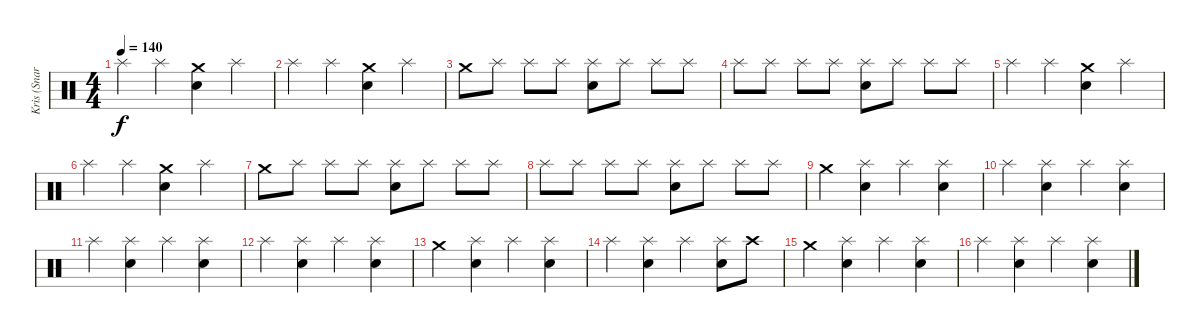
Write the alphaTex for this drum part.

\track ("Kris (Snares & Toms)" "Kris (Snar") {instrument percussion}
\staff {score}
\articulation defaults
\ts (4 4)
\tempo 140
\clef neutral
\ks c "Splash (hit)".4{dy f} "Splash (hit)".4
("Crash medium (hit)" "Electric Snare (hit)").4 "Splash (hit)".4 |
"Splash (hit)".4 "Splash (hit)".4 ("Crash medium (hit)" "Electric Snare (hit)").4 "Splash (hit)".4 |
"Crash medium (hit)".8 "Splash (hit)".8 "Splash (hit)".8 "Splash (hit)".8 ("Splash (hit)" "Electric Snare (hit)").8 "Splash (hit)".8 "Splash (hit)".8 "Splash (hit)".8 |
"Splash (hit)".8 "Splash (hit)".8 "Splash (hit)".8 "Splash (hit)".8 ("Splash (hit)" "Electric Snare (hit)").8 "Splash (hit)".8 "Splash (hit)".8 "Splash (hit)".8 |
"Splash (hit)".4 "Splash (hit)".4 ("Crash medium (hit)" "Electric Snare (hit)").4 "Splash (hit)".4 |
"Splash (hit)".4 "Splash (hit)".4 ("Crash medium (hit)" "Electric Snare (hit)").4 "Splash (hit)".4 |
"Crash medium (hit)".8 "Splash (hit)".8 "Splash (hit)".8 "Splash (hit)".8 ("Splash (hit)" "Electric Snare (hit)").8 "Splash (hit)".8 "Splash (hit)".8 "Splash (hit)".8 |
"Splash (hit)".8 "Splash (hit)".8 "Splash (hit)".8 "Splash (hit)".8 ("Splash (hit)" "Electric Snare (hit)").8 "Splash (hit)".8 "Splash (hit)".8 "Splash (hit)".8 |
"Crash medium (hit)".4 ("Splash (hit)" "Electric Snare (hit)").4 "Splash (hit)".4 ("Splash (hit)" "Electric Snare (hit)").4 |
"Splash (hit)".4 ("Splash (hit)" "Electric Snare (hit)").4 "Splash (hit)".4 ("Splash (hit)" "Electric Snare (hit)").4 |
"Splash (hit)".4 ("Splash (hit)" "Electric Snare (hit)").4 "Splash (hit)".4 ("Splash (hit)" "Electric Snare (hit)").4 |
"Splash (hit)".4 ("Splash (hit)" "Electric Snare (hit)").4 "Splash (hit)".4 ("Splash (hit)" "Electric Snare (hit)").4 |
"Crash medium (hit)".4 ("Splash (hit)" "Electric Snare (hit)").4 "Splash (hit)".4 ("Splash (hit)" "Electric Snare (hit)").4 |
"Splash (hit)".4 ("Splash (hit)" "Electric Snare (hit)").4 "Splash (hit)".4 ("Splash (hit)" "Electric Snare (hit)").8 "Crash high (hit)".8 |
"Crash medium (hit)".4 ("Splash (hit)" "Electric Snare (hit)").4 "Splash (hit)".4 ("Splash (hit)" "Electric Snare (hit)").4 |
"Splash (hit)".4 ("Splash (hit)" "Electric Snare (hit)").4 "Splash (hit)".4 ("Splash (hit)" "Electric Snare (hit)").4
